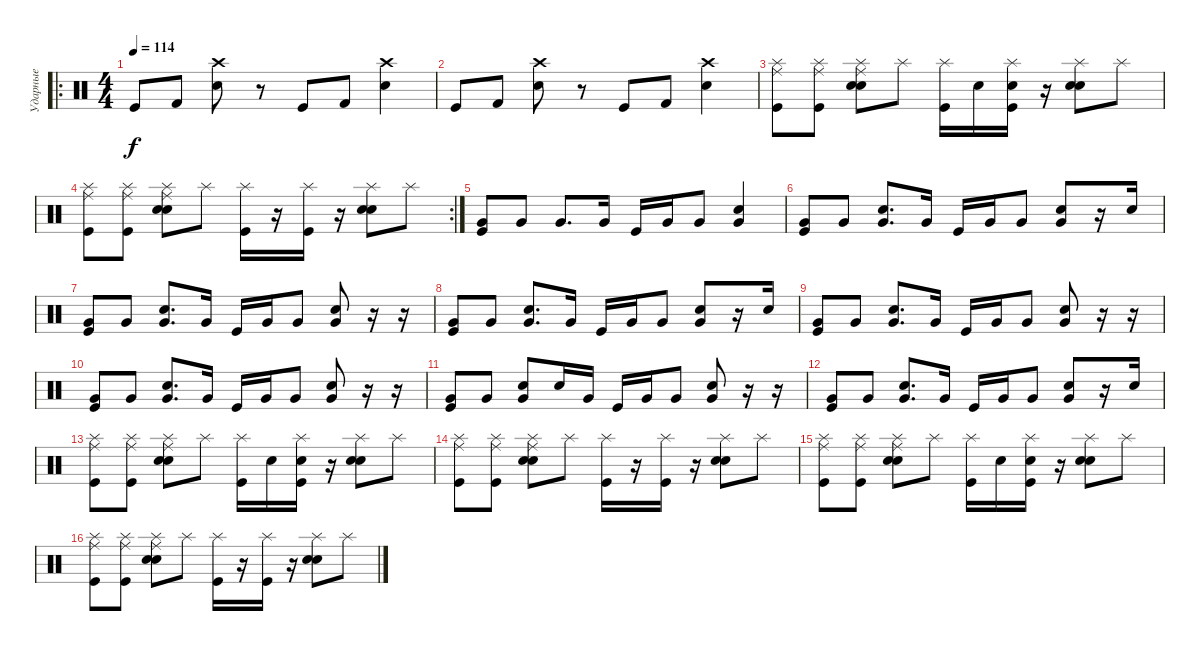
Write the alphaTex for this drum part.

\track ("Ударные" "Ударные") {instrument percussion}
\staff {score}
\articulation defaults
\ro
\ts (4 4)
\tempo 114
\clef neutral
\ks c "Kick (hit)".8{dy f} "Kick (hit) 2".8
("Crash high (hit)" "Electric Snare (hit)").8 r.8 "Kick (hit)".8 "Kick (hit) 2".8 ("Crash high (hit)" "Electric Snare (hit)").4 |
"Kick (hit)".8 "Kick (hit) 2".8 ("Crash high (hit)" "Electric Snare (hit)").8 r.8 "Kick (hit)".8 "Kick (hit) 2".8 ("Crash high (hit)" "Electric Snare (hit)").4 |
("Splash (hit)" "Ride (middle)" "Kick (hit)").8 ("Splash (hit)" "Ride (middle)" "Kick (hit)").8 ("Splash (hit)" "Ride (middle)" "Electric Snare (hit)" "Snare (hit) 2").8 "Splash (hit)".8 ("Splash (hit)" "Kick (hit)").16 "Electric Snare (hit)".16 ("Splash (hit)" "Snare (hit) 2" "Kick (hit)").16 r.16 ("Splash (hit)" "Electric Snare (hit)" "Snare (hit) 2").8 "Splash (hit)".8 |
\rc 2
("Splash (hit)" "Ride (middle)" "Kick (hit)").8 ("Splash (hit)" "Ride (middle)" "Kick (hit)").8 ("Splash (hit)" "Ride (middle)" "Electric Snare (hit)" "Snare (hit) 2").8 "Splash (hit)".8 ("Splash (hit)" "Kick (hit)").16 r.16 ("Splash (hit)" "Kick (hit)").16 r.16 ("Splash (hit)" "Electric Snare (hit)" "Snare (hit) 2").8 "Splash (hit)".8 |
("Very Low Tom (hit)" "Kick (hit)").8 "Very Low Tom (hit)".8 "Very Low Tom (hit)".8{d} "Very Low Tom (hit)".16 "Kick (hit)".16 "Very Low Tom (hit)".16 "Very Low Tom (hit)".8 ("Very Low Tom (hit)" "Electric Snare (hit)").4 |
("Very Low Tom (hit)" "Kick (hit)").8 "Very Low Tom (hit)".8 ("Very Low Tom (hit)" "Electric Snare (hit)").8{d} "Very Low Tom (hit)".16 "Kick (hit)".16 "Very Low Tom (hit)".16 "Very Low Tom (hit)".8 ("Very Low Tom (hit)" "Electric Snare (hit)").8 r.16 "Electric Snare (hit)".16 |
("Very Low Tom (hit)" "Kick (hit)").8 "Very Low Tom (hit)".8 ("Very Low Tom (hit)" "Electric Snare (hit)").8{d} "Very Low Tom (hit)".16 "Kick (hit)".16 "Very Low Tom (hit)".16 "Very Low Tom (hit)".8 ("Very Low Tom (hit)" "Electric Snare (hit)").8 r.16 r.16 |
("Very Low Tom (hit)" "Kick (hit)").8 "Very Low Tom (hit)".8 ("Very Low Tom (hit)" "Electric Snare (hit)").8{d} "Very Low Tom (hit)".16 "Kick (hit)".16 "Very Low Tom (hit)".16 "Very Low Tom (hit)".8 ("Very Low Tom (hit)" "Electric Snare (hit)").8 r.16 "Electric Snare (hit)".16 |
("Very Low Tom (hit)" "Kick (hit)").8 "Very Low Tom (hit)".8 ("Very Low Tom (hit)" "Electric Snare (hit)").8{d} "Very Low Tom (hit)".16 "Kick (hit)".16 "Very Low Tom (hit)".16 "Very Low Tom (hit)".8 ("Very Low Tom (hit)" "Electric Snare (hit)").8 r.16 r.16 |
("Very Low Tom (hit)" "Kick (hit)").8 "Very Low Tom (hit)".8 ("Very Low Tom (hit)" "Electric Snare (hit)").8{d} "Very Low Tom (hit)".16 "Kick (hit)".16 "Very Low Tom (hit)".16 "Very Low Tom (hit)".8 ("Very Low Tom (hit)" "Electric Snare (hit)").8 r.16 r.16 |
("Very Low Tom (hit)" "Kick (hit)").8 "Very Low Tom (hit)".8 ("Very Low Tom (hit)" "Electric Snare (hit)").8 "Electric Snare (hit)".16 "Very Low Tom (hit)".16 "Kick (hit)".16 "Very Low Tom (hit)".16 "Very Low Tom (hit)".8 ("Very Low Tom (hit)" "Electric Snare (hit)").8 r.16 r.16 |
("Very Low Tom (hit)" "Kick (hit)").8 "Very Low Tom (hit)".8 ("Very Low Tom (hit)" "Electric Snare (hit)").8{d} "Very Low Tom (hit)".16 "Kick (hit)".16 "Very Low Tom (hit)".16 "Very Low Tom (hit)".8 ("Very Low Tom (hit)" "Electric Snare (hit)").8 r.16 "Electric Snare (hit)".16 |
("Splash (hit)" "Ride (middle)" "Kick (hit)").8 ("Splash (hit)" "Ride (middle)" "Kick (hit)").8 ("Splash (hit)" "Ride (middle)" "Electric Snare (hit)" "Snare (hit) 2").8 "Splash (hit)".8 ("Splash (hit)" "Kick (hit)").16 "Electric Snare (hit)".16 ("Splash (hit)" "Snare (hit) 2" "Kick (hit)").16 r.16 ("Splash (hit)" "Electric Snare (hit)" "Snare (hit) 2").8 "Splash (hit)".8 |
("Splash (hit)" "Ride (middle)" "Kick (hit)").8 ("Splash (hit)" "Ride (middle)" "Kick (hit)").8 ("Splash (hit)" "Ride (middle)" "Electric Snare (hit)" "Snare (hit) 2").8 "Splash (hit)".8 ("Splash (hit)" "Kick (hit)").16 r.16 ("Splash (hit)" "Kick (hit)").16 r.16 ("Splash (hit)" "Electric Snare (hit)" "Snare (hit) 2").8 "Splash (hit)".8 |
("Splash (hit)" "Ride (middle)" "Kick (hit)").8 ("Splash (hit)" "Ride (middle)" "Kick (hit)").8 ("Splash (hit)" "Ride (middle)" "Electric Snare (hit)" "Snare (hit) 2").8 "Splash (hit)".8 ("Splash (hit)" "Kick (hit)").16 "Electric Snare (hit)".16 ("Splash (hit)" "Snare (hit) 2" "Kick (hit)").16 r.16 ("Splash (hit)" "Electric Snare (hit)" "Snare (hit) 2").8 "Splash (hit)".8 |
("Splash (hit)" "Ride (middle)" "Kick (hit)").8 ("Splash (hit)" "Ride (middle)" "Kick (hit)").8 ("Splash (hit)" "Ride (middle)" "Electric Snare (hit)" "Snare (hit) 2").8 "Splash (hit)".8 ("Splash (hit)" "Kick (hit)").16 r.16 ("Splash (hit)" "Kick (hit)").16 r.16 ("Splash (hit)" "Electric Snare (hit)" "Snare (hit) 2").8 "Splash (hit)".8
